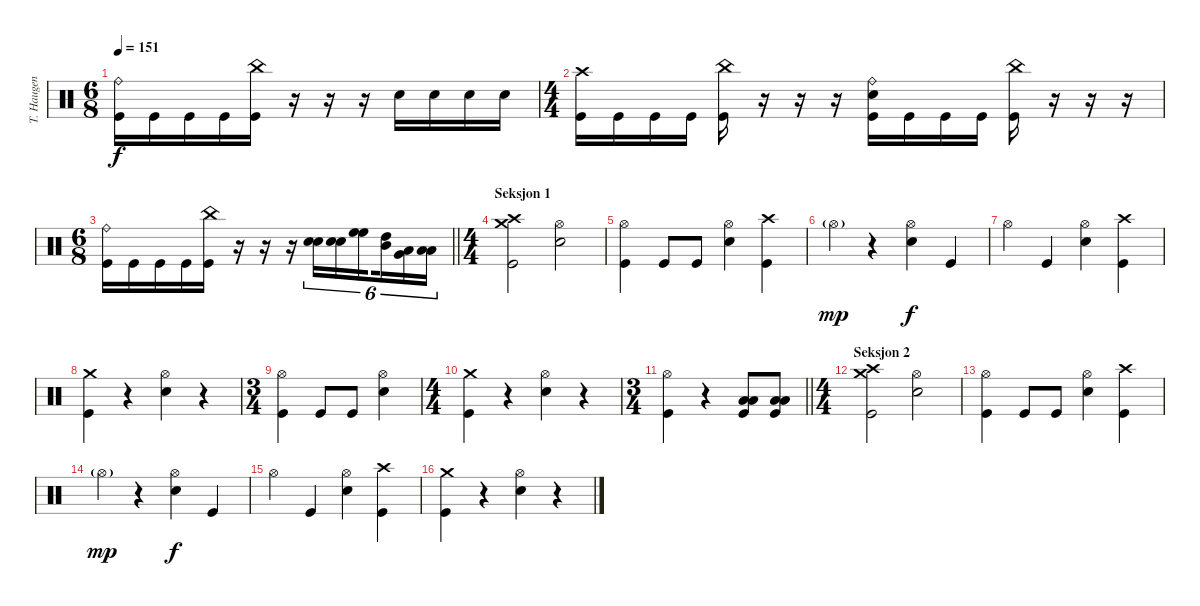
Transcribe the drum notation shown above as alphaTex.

\track ("T. Haugen" "T. Haugen") {instrument percussion}
\staff {score}
\articulation defaults
\ts (6 8)
\tempo 151
\clef neutral
\ks c
("Ride (bell)" "Kick (hit)").16{dy f} "Kick (hit)".16 "Kick (hit)".16 "Kick (hit)".16 ("China (hit)" "Kick (hit)").16 r.16 r.16 r.16 "Electric Snare (hit)".16 "Electric Snare (hit)".16 "Electric Snare (hit)".16 "Electric Snare (hit)".16 |
\ts (4 4)
("Crash high (hit)" "Kick (hit)").16 "Kick (hit)".16 "Kick (hit)".16 "Kick (hit)".16 ("China (hit)" "Kick (hit)").16 r.16 r.16 r.16 ("Ride (bell)" "Electric Snare (hit)" "Kick (hit)").16 "Kick (hit)".16 "Kick (hit)".16 "Kick (hit)".16 ("China (hit)" "Kick (hit)").16 r.16 r.16 r.16 |
\ts (6 8)
\barLineRight lightlight
("Ride (bell)" "Kick (hit)").16 "Kick (hit)".16 "Kick (hit)".16 "Kick (hit)".16 ("China (hit)" "Kick (hit)").16 r.16 r.16 r.16 ("Electric Snare (hit)" "Electric Snare (hit)").16{tu (6 4)} ("Electric Snare (hit)" "Electric Snare (hit)").16{tu (6 4)} ("High Floor Tom (hit)" "High Floor Tom (hit)").16{tu (6 4) beam splitsecondary} ("High Tom (hit)" "Mid Tom (hit)").16{tu (6 4)} ("Low Tom (hit)" "Very Low Tom (hit)").16{tu (6 4)} ("Low Floor Tom (hit)" "Low Floor Tom (hit)").16{tu (6 4)} |
\ts (4 4)
\section ("" "Seksjon 1")
("Crash medium (hit)" "Crash high (hit)" "Kick (hit)").2 ("Hi-Hat (open)" "Electric Snare (hit)").2 |
("Hi-Hat (open)" "Kick (hit)").4 "Kick (hit)".8 "Kick (hit)".8 ("Hi-Hat (open)" "Electric Snare (hit)").4 ("Crash high (hit)" "Kick (hit)").4 |
"Hi-Hat (open)"{g}.4{dy mp} r.4 ("Hi-Hat (open)" "Electric Snare (hit)").4{dy f} "Kick (hit)".4 |
"Hi-Hat (open)".4 "Kick (hit)".4 ("Hi-Hat (open)" "Electric Snare (hit)").4 ("Crash high (hit)" "Kick (hit)").4 |
("Crash medium (hit)" "Kick (hit)").4 r.4 ("Hi-Hat (open)" "Electric Snare (hit)").4 r.4 |
\ts (3 4)
("Hi-Hat (open)" "Kick (hit)").4 "Kick (hit)".8 "Kick (hit)".8 ("Hi-Hat (open)" "Electric Snare (hit)").4 |
\ts (4 4)
("Crash medium (hit)" "Kick (hit)").4 r.4 ("Hi-Hat (open)" "Electric Snare (hit)").4 r.4 |
\ts (3 4)
\barLineRight lightlight
("Hi-Hat (open)" "Kick (hit)").4 r.4 ("Low Floor Tom (hit)" "Low Floor Tom (hit)" "Kick (hit)").8 ("Low Floor Tom (hit)" "Low Floor Tom (hit)" "Kick (hit)").8 |
\ts (4 4)
\section ("" "Seksjon 2")
("Crash medium (hit)" "Crash high (hit)" "Kick (hit)").2 ("Hi-Hat (open)" "Electric Snare (hit)").2 |
("Hi-Hat (open)" "Kick (hit)").4 "Kick (hit)".8 "Kick (hit)".8 ("Hi-Hat (open)" "Electric Snare (hit)").4 ("Crash high (hit)" "Kick (hit)").4 |
"Hi-Hat (open)"{g}.4{dy mp} r.4 ("Hi-Hat (open)" "Electric Snare (hit)").4{dy f} "Kick (hit)".4 |
"Hi-Hat (open)".4 "Kick (hit)".4 ("Hi-Hat (open)" "Electric Snare (hit)").4 ("Crash high (hit)" "Kick (hit)").4 |
("Crash medium (hit)" "Kick (hit)").4 r.4 ("Hi-Hat (open)" "Electric Snare (hit)").4 r.4
